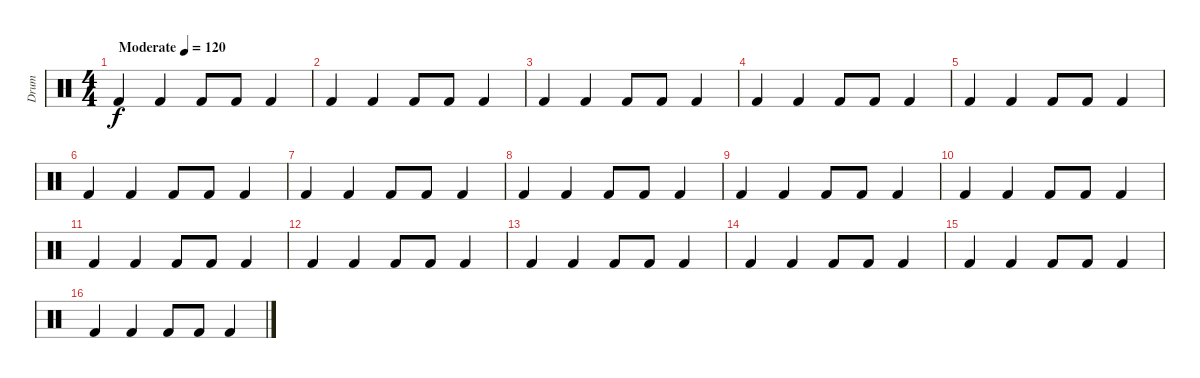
\track ("Drum" "Drum") {instrument percussion}
\staff {score}
\articulation defaults
\ts (4 4)
\tempo (120 "Moderate")
\clef neutral
\ks c "Kick (hit) 2".4{dy f} "Kick (hit) 2".4 "Kick (hit) 2".8 "Kick (hit) 2".8 "Kick (hit) 2".4
|
"Kick (hit) 2".4 "Kick (hit) 2".4 "Kick (hit) 2".8 "Kick (hit) 2".8 "Kick (hit) 2".4 |
"Kick (hit) 2".4 "Kick (hit) 2".4 "Kick (hit) 2".8 "Kick (hit) 2".8 "Kick (hit) 2".4 |
"Kick (hit) 2".4 "Kick (hit) 2".4 "Kick (hit) 2".8 "Kick (hit) 2".8 "Kick (hit) 2".4 |
"Kick (hit) 2".4 "Kick (hit) 2".4 "Kick (hit) 2".8 "Kick (hit) 2".8 "Kick (hit) 2".4 |
"Kick (hit) 2".4 "Kick (hit) 2".4 "Kick (hit) 2".8 "Kick (hit) 2".8 "Kick (hit) 2".4 |
"Kick (hit) 2".4 "Kick (hit) 2".4 "Kick (hit) 2".8 "Kick (hit) 2".8 "Kick (hit) 2".4 |
"Kick (hit) 2".4 "Kick (hit) 2".4 "Kick (hit) 2".8 "Kick (hit) 2".8 "Kick (hit) 2".4 |
"Kick (hit) 2".4 "Kick (hit) 2".4 "Kick (hit) 2".8 "Kick (hit) 2".8 "Kick (hit) 2".4 |
"Kick (hit) 2".4 "Kick (hit) 2".4 "Kick (hit) 2".8 "Kick (hit) 2".8 "Kick (hit) 2".4 |
"Kick (hit) 2".4 "Kick (hit) 2".4 "Kick (hit) 2".8 "Kick (hit) 2".8 "Kick (hit) 2".4 |
"Kick (hit) 2".4 "Kick (hit) 2".4 "Kick (hit) 2".8 "Kick (hit) 2".8 "Kick (hit) 2".4 |
"Kick (hit) 2".4 "Kick (hit) 2".4 "Kick (hit) 2".8 "Kick (hit) 2".8 "Kick (hit) 2".4 |
"Kick (hit) 2".4 "Kick (hit) 2".4 "Kick (hit) 2".8 "Kick (hit) 2".8 "Kick (hit) 2".4 |
"Kick (hit) 2".4 "Kick (hit) 2".4 "Kick (hit) 2".8 "Kick (hit) 2".8 "Kick (hit) 2".4 |
"Kick (hit) 2".4 "Kick (hit) 2".4 "Kick (hit) 2".8 "Kick (hit) 2".8 "Kick (hit) 2".4
